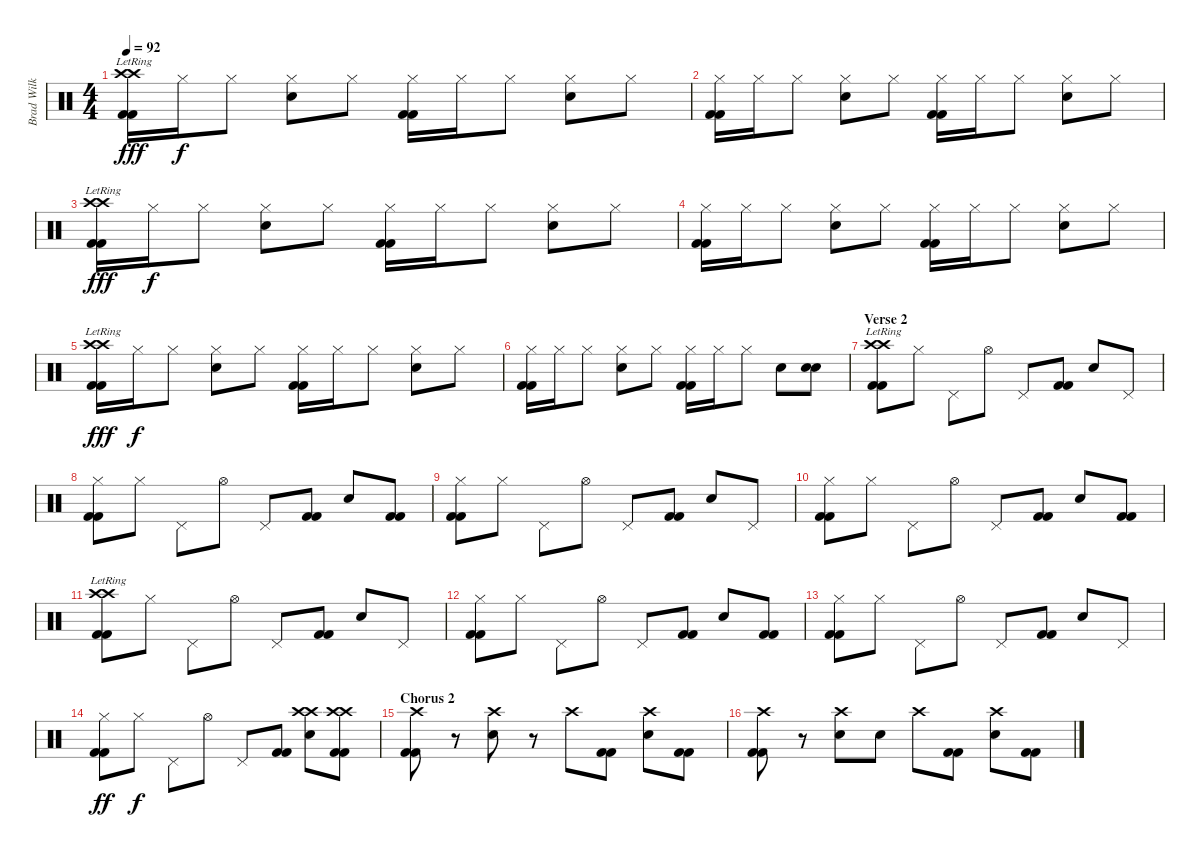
\track ("Brad Wilk" "Brad Wilk") {instrument percussion}
\staff {score}
\articulation defaults
\ts (4 4)
\tempo 92
\clef neutral
\ks c
("Crash high (hit)"{lr} "Crash high (hit)"{lr} "Kick (hit) 2" "Kick (hit) 2").16{dy fff} "Hi-Hat (closed)".16{dy f} "Hi-Hat (closed)".8 ("Hi-Hat (closed)" "Electric Snare (hit)").8 "Hi-Hat (closed)".8 ("Hi-Hat (closed)" "Kick (hit) 2" "Kick (hit) 2").16 "Hi-Hat (closed)".16 "Hi-Hat (closed)".8 ("Hi-Hat (closed)" "Snare (hit) 2").8 "Hi-Hat (closed)".8 |
("Hi-Hat (closed)" "Kick (hit) 2" "Kick (hit) 2").16 "Hi-Hat (closed)".16 "Hi-Hat (closed)".8 ("Hi-Hat (closed)" "Snare (hit) 2").8 "Hi-Hat (closed)".8 ("Hi-Hat (closed)" "Kick (hit) 2" "Kick (hit) 2").16 "Hi-Hat (closed)".16 "Hi-Hat (closed)".8 ("Hi-Hat (closed)" "Snare (hit) 2").8 "Hi-Hat (closed)".8 |
("Crash high (hit)"{lr} "Crash high (hit)"{lr} "Kick (hit) 2" "Kick (hit) 2").16{dy fff} "Hi-Hat (closed)".16{dy f} "Hi-Hat (closed)".8 ("Hi-Hat (closed)" "Electric Snare (hit)").8 "Hi-Hat (closed)".8 ("Hi-Hat (closed)" "Kick (hit) 2" "Kick (hit) 2").16 "Hi-Hat (closed)".16 "Hi-Hat (closed)".8 ("Hi-Hat (closed)" "Snare (hit) 2").8 "Hi-Hat (closed)".8 |
("Hi-Hat (closed)" "Kick (hit) 2" "Kick (hit) 2").16 "Hi-Hat (closed)".16 "Hi-Hat (closed)".8 ("Hi-Hat (closed)" "Snare (hit) 2").8 "Hi-Hat (closed)".8 ("Hi-Hat (closed)" "Kick (hit) 2" "Kick (hit) 2").16 "Hi-Hat (closed)".16 "Hi-Hat (closed)".8 ("Hi-Hat (closed)" "Snare (hit) 2").8 "Hi-Hat (closed)".8 |
("Crash high (hit)"{lr} "Crash high (hit)"{lr} "Kick (hit) 2" "Kick (hit) 2").16{dy fff} "Hi-Hat (closed)".16{dy f} "Hi-Hat (closed)".8 ("Hi-Hat (closed)" "Electric Snare (hit)").8 "Hi-Hat (closed)".8 ("Hi-Hat (closed)" "Kick (hit) 2" "Kick (hit) 2").16 "Hi-Hat (closed)".16 "Hi-Hat (closed)".8 ("Hi-Hat (closed)" "Snare (hit) 2").8 "Hi-Hat (closed)".8 |
("Hi-Hat (closed)" "Kick (hit) 2" "Kick (hit) 2").16 "Hi-Hat (closed)".16 "Hi-Hat (closed)".8 ("Hi-Hat (closed)" "Snare (hit) 2").8 "Hi-Hat (closed)".8 ("Hi-Hat (closed)" "Kick (hit) 2" "Kick (hit) 2").16 "Hi-Hat (closed)".16 "Hi-Hat (closed)".8 "Electric Snare (hit)".8 ("Electric Snare (hit)" "Electric Snare (hit)").8{bd 120} |
\section ("" "Verse 2")
("Crash high (hit)"{lr} "Crash high (hit)"{lr} "Kick (hit) 2" "Kick (hit) 2").8 "Hi-Hat (closed)".8 "Pedal Hi-Hat (hit)".8 "Hi-Hat (open)".8 "Pedal Hi-Hat (hit)".8 ("Kick (hit) 2" "Kick (hit) 2").8 "Electric Snare (hit)".8 "Pedal Hi-Hat (hit)".8 |
("Hi-Hat (closed)" "Kick (hit) 2" "Kick (hit) 2").8 "Hi-Hat (closed)".8 "Pedal Hi-Hat (hit)".8 "Hi-Hat (open)".8 "Pedal Hi-Hat (hit)".8 ("Kick (hit) 2" "Kick (hit) 2").8 "Electric Snare (hit)".8 ("Kick (hit) 2" "Kick (hit) 2").8 |
("Hi-Hat (closed)" "Kick (hit) 2" "Kick (hit) 2").8 "Hi-Hat (closed)".8 "Pedal Hi-Hat (hit)".8 "Hi-Hat (open)".8 "Pedal Hi-Hat (hit)".8 ("Kick (hit) 2" "Kick (hit) 2").8 "Electric Snare (hit)".8 "Pedal Hi-Hat (hit)".8 |
("Hi-Hat (closed)" "Kick (hit) 2" "Kick (hit) 2").8 "Hi-Hat (closed)".8 "Pedal Hi-Hat (hit)".8 "Hi-Hat (open)".8 "Pedal Hi-Hat (hit)".8 ("Kick (hit) 2" "Kick (hit) 2").8 "Electric Snare (hit)".8 ("Kick (hit) 2" "Kick (hit) 2").8 |
("Crash high (hit)"{lr} "Crash high (hit)"{lr} "Kick (hit) 2" "Kick (hit) 2").8 "Hi-Hat (closed)".8 "Pedal Hi-Hat (hit)".8 "Hi-Hat (open)".8 "Pedal Hi-Hat (hit)".8 ("Kick (hit) 2" "Kick (hit) 2").8 "Electric Snare (hit)".8 "Pedal Hi-Hat (hit)".8 |
("Hi-Hat (closed)" "Kick (hit) 2" "Kick (hit) 2").8 "Hi-Hat (closed)".8 "Pedal Hi-Hat (hit)".8 "Hi-Hat (open)".8 "Pedal Hi-Hat (hit)".8 ("Kick (hit) 2" "Kick (hit) 2").8 "Electric Snare (hit)".8 ("Kick (hit) 2" "Kick (hit) 2").8 |
("Hi-Hat (closed)" "Kick (hit) 2" "Kick (hit) 2").8 "Hi-Hat (closed)".8 "Pedal Hi-Hat (hit)".8 "Hi-Hat (open)".8 "Pedal Hi-Hat (hit)".8 ("Kick (hit) 2" "Kick (hit) 2").8 "Electric Snare (hit)".8 "Pedal Hi-Hat (hit)".8 |
("Hi-Hat (closed)" "Kick (hit) 2" "Kick (hit) 2").8{dy ff} "Hi-Hat (closed)".8{dy f} "Pedal Hi-Hat (hit)".8 "Hi-Hat (open)".8 "Pedal Hi-Hat (hit)".8 ("Kick (hit) 2" "Kick (hit) 2").8 ("Crash high (hit)" "Crash high (hit)" "Electric Snare (hit)").8 ("Crash high (hit)" "Crash high (hit)" "Kick (hit) 2" "Kick (hit) 2").8 |
\section ("" "Chorus 2")
("Crash high (hit)" "Kick (hit) 2" "Kick (hit) 2").8 r.8 ("Crash high (hit)" "Electric Snare (hit)").8 r.8 "Crash high (hit)".8 ("Kick (hit) 2" "Kick (hit) 2").8 ("Crash high (hit)" "Electric Snare (hit)").8 ("Kick (hit) 2" "Kick (hit) 2").8 |
("Crash high (hit)" "Kick (hit) 2" "Kick (hit) 2").8 r.8 ("Crash high (hit)" "Electric Snare (hit)").8 "Electric Snare (hit)".8 "Crash high (hit)".8 ("Kick (hit) 2" "Kick (hit) 2").8 ("Crash high (hit)" "Electric Snare (hit)").8 ("Kick (hit) 2" "Kick (hit) 2").8
